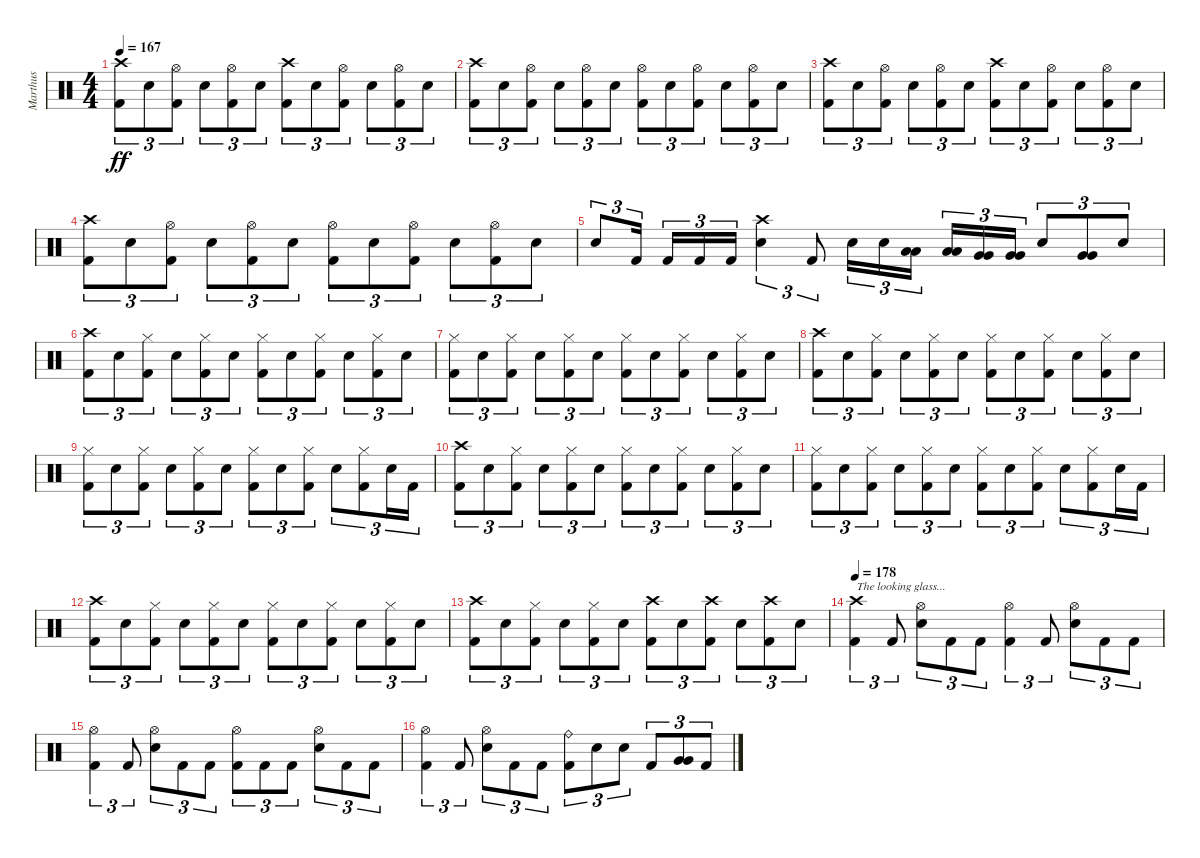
\track ("Marthus" "Marthus") {instrument percussion}
\staff {score}
\articulation defaults
\ts (4 4)
\tempo 167
\clef neutral
\ks c
("Crash high (hit)" "Kick (hit) 2").8{tu (3 2) dy ff} "Electric Snare (hit)".8{tu (3 2)} ("Hi-Hat (open)" "Kick (hit) 2").8{tu (3 2)} "Electric Snare (hit)".8{tu (3 2)} ("Hi-Hat (open)" "Kick (hit) 2").8{tu (3 2)} "Electric Snare (hit)".8{tu (3 2)} ("Crash high (hit)" "Kick (hit) 2").8{tu (3 2)} "Electric Snare (hit)".8{tu (3 2)} ("Hi-Hat (open)" "Kick (hit) 2").8{tu (3 2)} "Electric Snare (hit)".8{tu (3 2)} ("Hi-Hat (open)" "Kick (hit) 2").8{tu (3 2)} "Electric Snare (hit)".8{tu (3 2)} |
("Crash high (hit)" "Kick (hit) 2").8{tu (3 2)} "Electric Snare (hit)".8{tu (3 2)} ("Hi-Hat (open)" "Kick (hit) 2").8{tu (3 2)} "Electric Snare (hit)".8{tu (3 2)} ("Hi-Hat (open)" "Kick (hit) 2").8{tu (3 2)} "Electric Snare (hit)".8{tu (3 2)} ("Hi-Hat (open)" "Kick (hit) 2").8{tu (3 2)} "Electric Snare (hit)".8{tu (3 2)} ("Hi-Hat (open)" "Kick (hit) 2").8{tu (3 2)} "Electric Snare (hit)".8{tu (3 2)} ("Hi-Hat (open)" "Kick (hit) 2").8{tu (3 2)} "Electric Snare (hit)".8{tu (3 2)} |
("Crash high (hit)" "Kick (hit) 2").8{tu (3 2)} "Electric Snare (hit)".8{tu (3 2)} ("Hi-Hat (open)" "Kick (hit) 2").8{tu (3 2)} "Electric Snare (hit)".8{tu (3 2)} ("Hi-Hat (open)" "Kick (hit) 2").8{tu (3 2)} "Electric Snare (hit)".8{tu (3 2)} ("Crash high (hit)" "Kick (hit) 2").8{tu (3 2)} "Electric Snare (hit)".8{tu (3 2)} ("Hi-Hat (open)" "Kick (hit) 2").8{tu (3 2)} "Electric Snare (hit)".8{tu (3 2)} ("Hi-Hat (open)" "Kick (hit) 2").8{tu (3 2)} "Electric Snare (hit)".8{tu (3 2)} |
("Crash high (hit)" "Kick (hit) 2").8{tu (3 2)} "Electric Snare (hit)".8{tu (3 2)} ("Hi-Hat (open)" "Kick (hit) 2").8{tu (3 2)} "Electric Snare (hit)".8{tu (3 2)} ("Hi-Hat (open)" "Kick (hit) 2").8{tu (3 2)} "Electric Snare (hit)".8{tu (3 2)} ("Hi-Hat (open)" "Kick (hit) 2").8{tu (3 2)} "Electric Snare (hit)".8{tu (3 2)} ("Hi-Hat (open)" "Kick (hit) 2").8{tu (3 2)} "Electric Snare (hit)".8{tu (3 2)} ("Hi-Hat (open)" "Kick (hit) 2").8{tu (3 2)} "Electric Snare (hit)".8{tu (3 2)} |
"Electric Snare (hit)".8{tu (3 2)} "Kick (hit) 2".16{tu (3 2) beam splitsecondary} "Kick (hit) 2".16{tu (3 2)} "Kick (hit) 2".16{tu (3 2)} "Kick (hit) 2".16{tu (3 2)} ("Crash high (hit)" "Electric Snare (hit)").4{tu (3 2)} "Kick (hit) 2".8{tu (3 2)} "Electric Snare (hit)".16{tu (3 2)} "Electric Snare (hit)".16{tu (3 2)} ("Low Tom (hit)" "Low Tom (hit)").16{tu (3 2) beam splitsecondary} ("Low Tom (hit)" "Low Tom (hit)").16{tu (3 2)} ("Very Low Tom (hit)" "Very Low Tom (hit)").16{tu (3 2)} ("Very Low Tom (hit)" "Very Low Tom (hit)").16{tu (3 2)} "Electric Snare (hit)".8{tu (3 2)} ("Very Low Tom (hit)" "Very Low Tom (hit)").8{tu (3 2)} "Electric Snare (hit)".8{tu (3 2)} |
("Crash high (hit)" "Kick (hit) 2").8{tu (3 2)} "Electric Snare (hit)".8{tu (3 2)} ("Hi-Hat (closed)" "Kick (hit) 2").8{tu (3 2)} "Electric Snare (hit)".8{tu (3 2)} ("Hi-Hat (closed)" "Kick (hit) 2").8{tu (3 2)} "Electric Snare (hit)".8{tu (3 2)} ("Hi-Hat (closed)" "Kick (hit) 2").8{tu (3 2)} "Electric Snare (hit)".8{tu (3 2)} ("Hi-Hat (closed)" "Kick (hit) 2").8{tu (3 2)} "Electric Snare (hit)".8{tu (3 2)} ("Hi-Hat (closed)" "Kick (hit) 2").8{tu (3 2)} "Electric Snare (hit)".8{tu (3 2)} |
("Hi-Hat (closed)" "Kick (hit) 2").8{tu (3 2)} "Electric Snare (hit)".8{tu (3 2)} ("Hi-Hat (closed)" "Kick (hit) 2").8{tu (3 2)} "Electric Snare (hit)".8{tu (3 2)} ("Hi-Hat (closed)" "Kick (hit) 2").8{tu (3 2)} "Electric Snare (hit)".8{tu (3 2)} ("Hi-Hat (closed)" "Kick (hit) 2").8{tu (3 2)} "Electric Snare (hit)".8{tu (3 2)} ("Hi-Hat (closed)" "Kick (hit) 2").8{tu (3 2)} "Electric Snare (hit)".8{tu (3 2)} ("Hi-Hat (closed)" "Kick (hit) 2").8{tu (3 2)} "Electric Snare (hit)".8{tu (3 2)} |
("Crash high (hit)" "Kick (hit) 2").8{tu (3 2)} "Electric Snare (hit)".8{tu (3 2)} ("Hi-Hat (closed)" "Kick (hit) 2").8{tu (3 2)} "Electric Snare (hit)".8{tu (3 2)} ("Hi-Hat (closed)" "Kick (hit) 2").8{tu (3 2)} "Electric Snare (hit)".8{tu (3 2)} ("Hi-Hat (closed)" "Kick (hit) 2").8{tu (3 2)} "Electric Snare (hit)".8{tu (3 2)} ("Hi-Hat (closed)" "Kick (hit) 2").8{tu (3 2)} "Electric Snare (hit)".8{tu (3 2)} ("Hi-Hat (closed)" "Kick (hit) 2").8{tu (3 2)} "Electric Snare (hit)".8{tu (3 2)} |
("Hi-Hat (closed)" "Kick (hit) 2").8{tu (3 2)} "Electric Snare (hit)".8{tu (3 2)} ("Hi-Hat (closed)" "Kick (hit) 2").8{tu (3 2)} "Electric Snare (hit)".8{tu (3 2)} ("Hi-Hat (closed)" "Kick (hit) 2").8{tu (3 2)} "Electric Snare (hit)".8{tu (3 2)} ("Hi-Hat (closed)" "Kick (hit) 2").8{tu (3 2)} "Electric Snare (hit)".8{tu (3 2)} ("Hi-Hat (closed)" "Kick (hit) 2").8{tu (3 2)} "Electric Snare (hit)".8{tu (3 2)} ("Hi-Hat (closed)" "Kick (hit) 2").8{tu (3 2)} "Electric Snare (hit)".16{tu (3 2)} "Kick (hit) 2".16{tu (3 2)} |
("Crash high (hit)" "Kick (hit) 2").8{tu (3 2)} "Electric Snare (hit)".8{tu (3 2)} ("Hi-Hat (closed)" "Kick (hit) 2").8{tu (3 2)} "Electric Snare (hit)".8{tu (3 2)} ("Hi-Hat (closed)" "Kick (hit) 2").8{tu (3 2)} "Electric Snare (hit)".8{tu (3 2)} ("Hi-Hat (closed)" "Kick (hit) 2").8{tu (3 2)} "Electric Snare (hit)".8{tu (3 2)} ("Hi-Hat (closed)" "Kick (hit) 2").8{tu (3 2)} "Electric Snare (hit)".8{tu (3 2)} ("Hi-Hat (closed)" "Kick (hit) 2").8{tu (3 2)} "Electric Snare (hit)".8{tu (3 2)} |
("Hi-Hat (closed)" "Kick (hit) 2").8{tu (3 2)} "Electric Snare (hit)".8{tu (3 2)} ("Hi-Hat (closed)" "Kick (hit) 2").8{tu (3 2)} "Electric Snare (hit)".8{tu (3 2)} ("Hi-Hat (closed)" "Kick (hit) 2").8{tu (3 2)} "Electric Snare (hit)".8{tu (3 2)} ("Hi-Hat (closed)" "Kick (hit) 2").8{tu (3 2)} "Electric Snare (hit)".8{tu (3 2)} ("Hi-Hat (closed)" "Kick (hit) 2").8{tu (3 2)} "Electric Snare (hit)".8{tu (3 2)} ("Hi-Hat (closed)" "Kick (hit) 2").8{tu (3 2)} "Electric Snare (hit)".16{tu (3 2)} "Kick (hit) 2".16{tu (3 2)} |
("Crash high (hit)" "Kick (hit) 2").8{tu (3 2)} "Electric Snare (hit)".8{tu (3 2)} ("Hi-Hat (closed)" "Kick (hit) 2").8{tu (3 2)} "Electric Snare (hit)".8{tu (3 2)} ("Hi-Hat (closed)" "Kick (hit) 2").8{tu (3 2)} "Electric Snare (hit)".8{tu (3 2)} ("Hi-Hat (closed)" "Kick (hit) 2").8{tu (3 2)} "Electric Snare (hit)".8{tu (3 2)} ("Hi-Hat (closed)" "Kick (hit) 2").8{tu (3 2)} "Electric Snare (hit)".8{tu (3 2)} ("Hi-Hat (closed)" "Kick (hit) 2").8{tu (3 2)} "Electric Snare (hit)".8{tu (3 2)} |
("Crash high (hit)" "Kick (hit) 2").8{tu (3 2)} "Electric Snare (hit)".8{tu (3 2)} ("Hi-Hat (closed)" "Kick (hit) 2").8{tu (3 2)} "Electric Snare (hit)".8{tu (3 2)} ("Hi-Hat (closed)" "Kick (hit) 2").8{tu (3 2)} "Electric Snare (hit)".8{tu (3 2)} ("Crash high (hit)" "Kick (hit) 2").8{tu (3 2)} "Electric Snare (hit)".8{tu (3 2)} ("Crash high (hit)" "Kick (hit) 2").8{tu (3 2)} "Electric Snare (hit)".8{tu (3 2)} ("Crash high (hit)" "Kick (hit) 2").8{tu (3 2)} "Electric Snare (hit)".8{tu (3 2)} |
\tempo 178
("Crash high (hit)" "Kick (hit) 2").4{tu (3 2) txt "The looking glass..."} "Kick (hit) 2".8{tu (3 2)} ("Hi-Hat (open)" "Electric Snare (hit)").8{tu (3 2)} "Kick (hit) 2".8{tu (3 2)} "Kick (hit) 2".8{tu (3 2)} ("Hi-Hat (open)" "Kick (hit) 2").4{tu (3 2)} "Kick (hit) 2".8{tu (3 2)} ("Hi-Hat (open)" "Electric Snare (hit)").8{tu (3 2)} "Kick (hit) 2".8{tu (3 2)} "Kick (hit) 2".8{tu (3 2)} |
("Hi-Hat (open)" "Kick (hit) 2").4{tu (3 2)} "Kick (hit) 2".8{tu (3 2)} ("Hi-Hat (open)" "Electric Snare (hit)").8{tu (3 2)} "Kick (hit) 2".8{tu (3 2)} "Kick (hit) 2".8{tu (3 2)} ("Hi-Hat (open)" "Kick (hit) 2").8{tu (3 2)} "Kick (hit) 2".8{tu (3 2)} "Kick (hit) 2".8{tu (3 2)} ("Hi-Hat (open)" "Electric Snare (hit)").8{tu (3 2)} "Kick (hit) 2".8{tu (3 2)} "Kick (hit) 2".8{tu (3 2)} |
("Hi-Hat (open)" "Kick (hit) 2").4{tu (3 2)} "Kick (hit) 2".8{tu (3 2)} ("Hi-Hat (open)" "Electric Snare (hit)").8{tu (3 2)} "Kick (hit) 2".8{tu (3 2)} "Kick (hit) 2".8{tu (3 2)} ("Ride (bell)" "Kick (hit) 2").8{tu (3 2)} "Electric Snare (hit)".8{tu (3 2)} "Electric Snare (hit)".8{tu (3 2)} "Kick (hit) 2".8{tu (3 2)} ("Very Low Tom (hit)" "Very Low Tom (hit)").8{tu (3 2)} "Kick (hit) 2".8{tu (3 2)}
